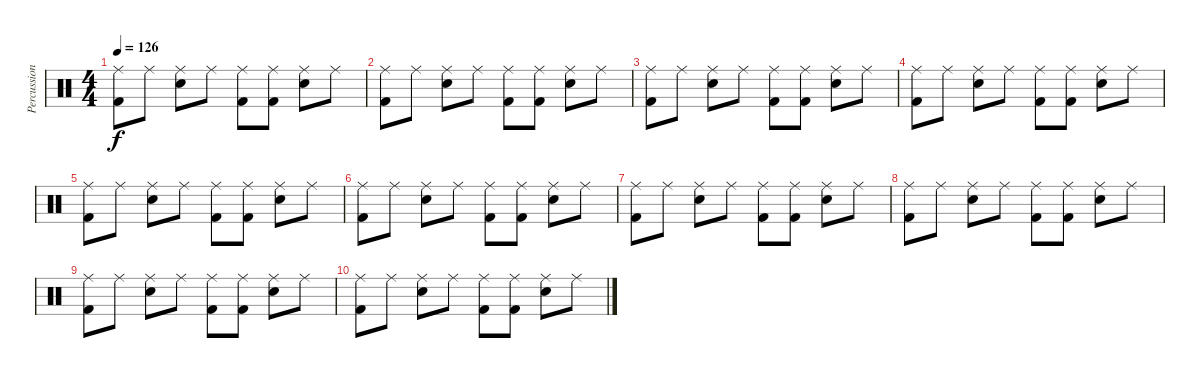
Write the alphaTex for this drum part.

\track ("Percussions" "Percussion") {instrument percussion}
\staff {score}
\articulation defaults
\ts (4 4)
\tempo 126
\clef neutral
\ks c
("Ride (middle)" "Kick (hit) 2").8{dy f} "Ride (middle)".8 ("Ride (middle)" "Snare (hit) 2").8 "Ride (middle)".8 ("Ride (middle)" "Kick (hit) 2").8 ("Ride (middle)" "Kick (hit) 2").8 ("Ride (middle)" "Snare (hit) 2").8 "Ride (middle)".8 |
("Ride (middle)" "Kick (hit) 2").8 "Ride (middle)".8 ("Ride (middle)" "Snare (hit) 2").8 "Ride (middle)".8 ("Ride (middle)" "Kick (hit) 2").8 ("Ride (middle)" "Kick (hit) 2").8 ("Ride (middle)" "Snare (hit) 2").8 "Ride (middle)".8 |
("Ride (middle)" "Kick (hit) 2").8 "Ride (middle)".8 ("Ride (middle)" "Snare (hit) 2").8 "Ride (middle)".8 ("Ride (middle)" "Kick (hit) 2").8 ("Ride (middle)" "Kick (hit) 2").8 ("Ride (middle)" "Snare (hit) 2").8 "Ride (middle)".8 |
("Ride (middle)" "Kick (hit) 2").8 "Ride (middle)".8 ("Ride (middle)" "Snare (hit) 2").8 "Ride (middle)".8 ("Ride (middle)" "Kick (hit) 2").8 ("Ride (middle)" "Kick (hit) 2").8 ("Ride (middle)" "Snare (hit) 2").8 "Ride (middle)".8 |
("Ride (middle)" "Kick (hit) 2").8 "Ride (middle)".8 ("Ride (middle)" "Snare (hit) 2").8 "Ride (middle)".8 ("Ride (middle)" "Kick (hit) 2").8 ("Ride (middle)" "Kick (hit) 2").8 ("Ride (middle)" "Snare (hit) 2").8 "Ride (middle)".8 |
("Ride (middle)" "Kick (hit) 2").8 "Ride (middle)".8 ("Ride (middle)" "Snare (hit) 2").8 "Ride (middle)".8 ("Ride (middle)" "Kick (hit) 2").8 ("Ride (middle)" "Kick (hit) 2").8 ("Ride (middle)" "Snare (hit) 2").8 "Ride (middle)".8 |
("Ride (middle)" "Kick (hit) 2").8 "Ride (middle)".8 ("Ride (middle)" "Snare (hit) 2").8 "Ride (middle)".8 ("Ride (middle)" "Kick (hit) 2").8 ("Ride (middle)" "Kick (hit) 2").8 ("Ride (middle)" "Snare (hit) 2").8 "Ride (middle)".8 |
("Ride (middle)" "Kick (hit) 2").8 "Ride (middle)".8 ("Ride (middle)" "Snare (hit) 2").8 "Ride (middle)".8 ("Ride (middle)" "Kick (hit) 2").8 ("Ride (middle)" "Kick (hit) 2").8 ("Ride (middle)" "Snare (hit) 2").8 "Ride (middle)".8 |
("Ride (middle)" "Kick (hit) 2").8 "Ride (middle)".8 ("Ride (middle)" "Snare (hit) 2").8 "Ride (middle)".8 ("Ride (middle)" "Kick (hit) 2").8 ("Ride (middle)" "Kick (hit) 2").8 ("Ride (middle)" "Snare (hit) 2").8 "Ride (middle)".8 |
("Ride (middle)" "Kick (hit) 2").8 "Ride (middle)".8 ("Ride (middle)" "Snare (hit) 2").8 "Ride (middle)".8 ("Ride (middle)" "Kick (hit) 2").8 ("Ride (middle)" "Kick (hit) 2").8 ("Ride (middle)" "Snare (hit) 2").8 "Ride (middle)".8
